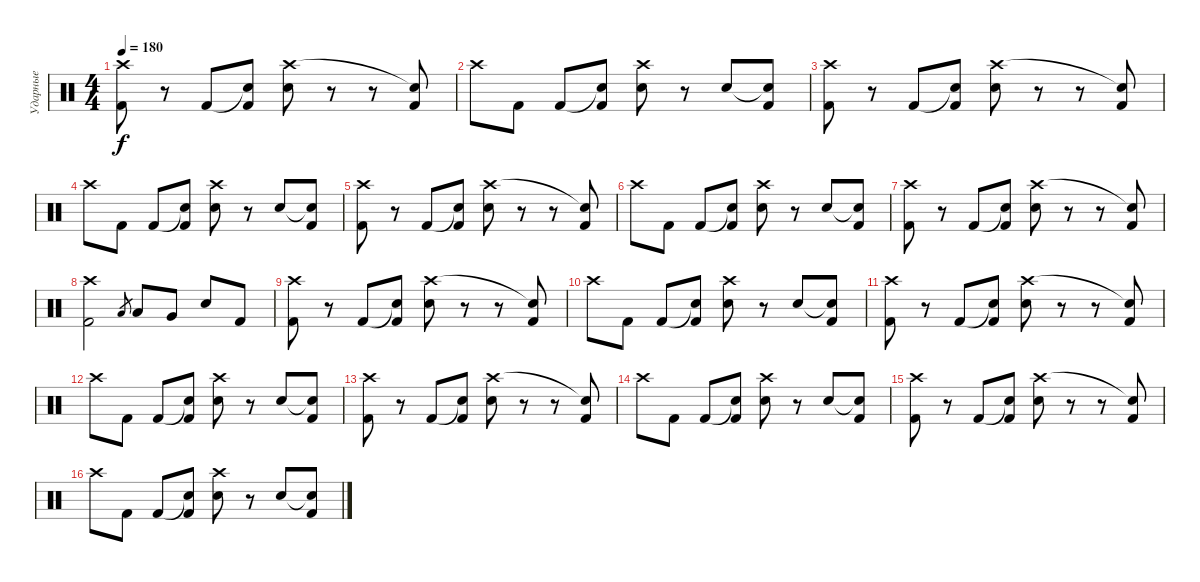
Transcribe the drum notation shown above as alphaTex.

\track ("Ударные" "Ударные") {instrument percussion}
\staff {score}
\articulation defaults
\ts (4 4)
\tempo 180
\clef neutral
\ks c
("Crash high (hit)" "Kick (hit) 2").8{dy f} r.8 "Kick (hit) 2".8 ("Snare (hit)"{t} "Kick (hit) 2").8 ("Crash high (hit)" "Electric Snare (hit)").8 r.8 r.8 ("Snare (hit)"{t} "Kick (hit) 2").8 |
"Crash high (hit)".8 "Kick (hit) 2".8 "Kick (hit) 2".8 ("Snare (hit)"{t} "Kick (hit) 2").8 ("Crash high (hit)" "Electric Snare (hit)").8 r.8 "Electric Snare (hit)".8 ("Snare (hit)"{t} "Kick (hit) 2").8 |
("Crash high (hit)" "Kick (hit) 2").8 r.8 "Kick (hit) 2".8 ("Snare (hit)"{t} "Kick (hit) 2").8 ("Crash high (hit)" "Electric Snare (hit)").8 r.8 r.8 ("Snare (hit)"{t} "Kick (hit) 2").8 |
"Crash high (hit)".8 "Kick (hit) 2".8 "Kick (hit) 2".8 ("Snare (hit)"{t} "Kick (hit) 2").8 ("Crash high (hit)" "Electric Snare (hit)").8 r.8 "Electric Snare (hit)".8 ("Snare (hit)"{t} "Kick (hit) 2").8 |
("Crash high (hit)" "Kick (hit) 2").8 r.8 "Kick (hit) 2".8 ("Snare (hit)"{t} "Kick (hit) 2").8 ("Crash high (hit)" "Electric Snare (hit)").8 r.8 r.8 ("Snare (hit)"{t} "Kick (hit) 2").8 |
"Crash high (hit)".8 "Kick (hit) 2".8 "Kick (hit) 2".8 ("Snare (hit)"{t} "Kick (hit) 2").8 ("Crash high (hit)" "Electric Snare (hit)").8 r.8 "Electric Snare (hit)".8 ("Snare (hit)"{t} "Kick (hit) 2").8 |
("Crash high (hit)" "Kick (hit) 2").8 r.8 "Kick (hit) 2".8 ("Snare (hit)"{t} "Kick (hit) 2").8 ("Crash high (hit)" "Electric Snare (hit)").8 r.8 r.8 ("Snare (hit)"{t} "Kick (hit) 2").8 |
("Crash high (hit)" "Kick (hit) 2").2 "Low Tom (hit)".8{gr} "Low Tom (hit)".8 "Very Low Tom (hit)".8 "Electric Snare (hit)".8 "Kick (hit) 2".8 |
("Crash high (hit)" "Kick (hit) 2").8 r.8 "Kick (hit) 2".8 ("Snare (hit)"{t} "Kick (hit) 2").8 ("Crash high (hit)" "Electric Snare (hit)").8 r.8 r.8 ("Snare (hit)"{t} "Kick (hit) 2").8 |
"Crash high (hit)".8 "Kick (hit) 2".8 "Kick (hit) 2".8 ("Snare (hit)"{t} "Kick (hit) 2").8 ("Crash high (hit)" "Electric Snare (hit)").8 r.8 "Electric Snare (hit)".8 ("Snare (hit)"{t} "Kick (hit) 2").8 |
("Crash high (hit)" "Kick (hit) 2").8 r.8 "Kick (hit) 2".8 ("Snare (hit)"{t} "Kick (hit) 2").8 ("Crash high (hit)" "Electric Snare (hit)").8 r.8 r.8 ("Snare (hit)"{t} "Kick (hit) 2").8 |
"Crash high (hit)".8 "Kick (hit) 2".8 "Kick (hit) 2".8 ("Snare (hit)"{t} "Kick (hit) 2").8 ("Crash high (hit)" "Electric Snare (hit)").8 r.8 "Electric Snare (hit)".8 ("Snare (hit)"{t} "Kick (hit) 2").8 |
("Crash high (hit)" "Kick (hit) 2").8 r.8 "Kick (hit) 2".8 ("Snare (hit)"{t} "Kick (hit) 2").8 ("Crash high (hit)" "Electric Snare (hit)").8 r.8 r.8 ("Snare (hit)"{t} "Kick (hit) 2").8 |
"Crash high (hit)".8 "Kick (hit) 2".8 "Kick (hit) 2".8 ("Snare (hit)"{t} "Kick (hit) 2").8 ("Crash high (hit)" "Electric Snare (hit)").8 r.8 "Electric Snare (hit)".8 ("Snare (hit)"{t} "Kick (hit) 2").8 |
("Crash high (hit)" "Kick (hit) 2").8 r.8 "Kick (hit) 2".8 ("Snare (hit)"{t} "Kick (hit) 2").8 ("Crash high (hit)" "Electric Snare (hit)").8 r.8 r.8 ("Snare (hit)"{t} "Kick (hit) 2").8 |
"Crash high (hit)".8 "Kick (hit) 2".8 "Kick (hit) 2".8 ("Snare (hit)"{t} "Kick (hit) 2").8 ("Crash high (hit)" "Electric Snare (hit)").8 r.8 "Electric Snare (hit)".8 ("Snare (hit)"{t} "Kick (hit) 2").8
